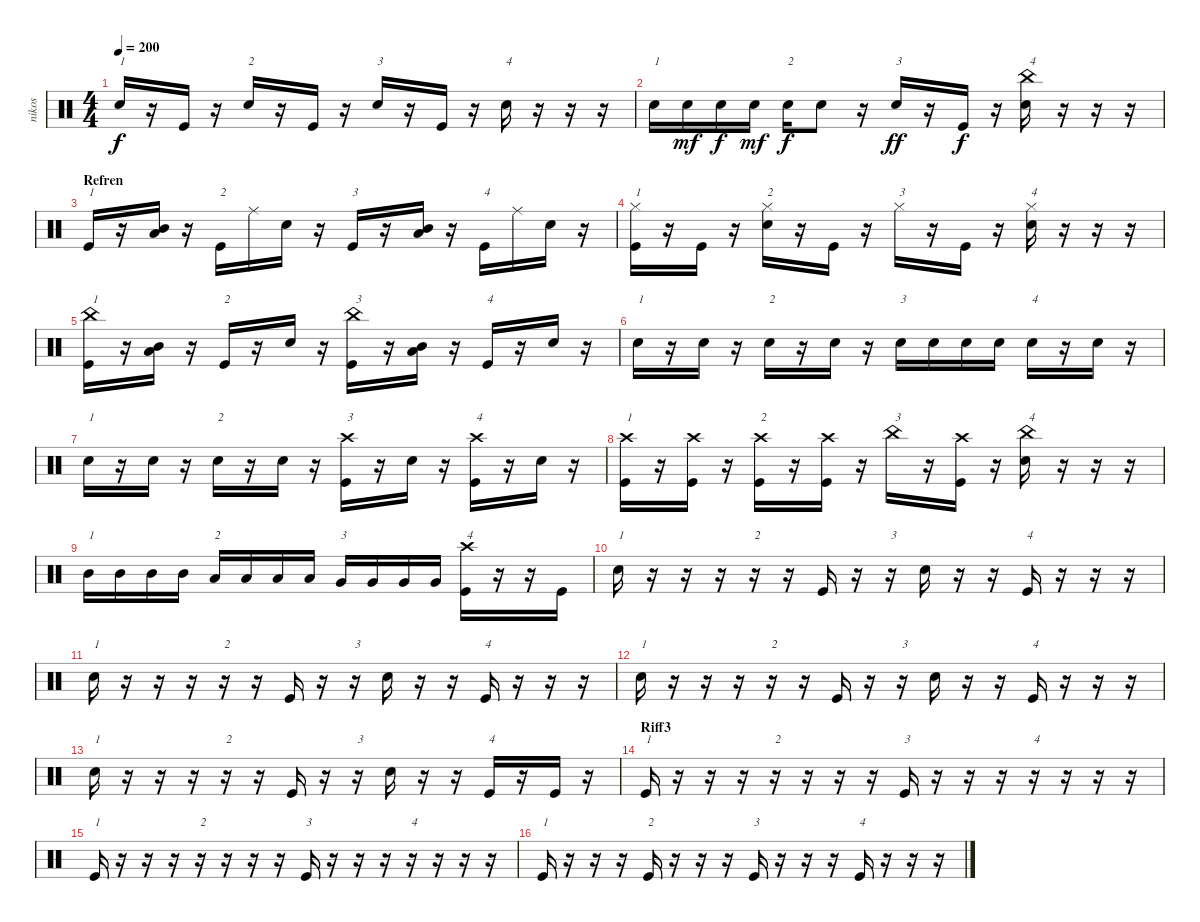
\track ("nikos" "nikos") {instrument percussion}
\staff {score}
\articulation defaults
\ts (4 4)
\tempo 200
\clef neutral
\ks c "Electric Snare (hit)".16{txt "1" dy f}
r.16 "Kick (hit)".16 r.16 "Electric Snare (hit)".16{txt "2"} r.16 "Kick (hit)".16 r.16 "Electric Snare (hit)".16{txt "3"} r.16 "Kick (hit)".16 r.16 "Electric Snare (hit)".16{txt "4"} r.16 r.16 r.16 |
"Electric Snare (hit)".16{txt "1"} "Electric Snare (hit)".16{dy mf} "Electric Snare (hit)".16{dy f} "Electric Snare (hit)".16{dy mf} "Electric Snare (hit)".16{txt "2" dy f} "Electric Snare (hit)".8 r.16 "Electric Snare (hit)".16{txt "3" dy ff} r.16 "Kick (hit)".16{dy f} r.16 ("China (hit)" "Electric Snare (hit)").16{txt "4"} r.16 r.16 r.16 |
\section ("" "Refren")
"Kick (hit)".16{txt "1"} r.16 ("Mid Tom (hit)" "Low Tom (hit)").16 r.16 "Kick (hit)".16{txt "2"} "Ride (middle)".16 "Electric Snare (hit)".16 r.16 "Kick (hit)".16{txt "3"} r.16 ("Mid Tom (hit)" "Low Tom (hit)").16 r.16 "Kick (hit)".16{txt "4"} "Ride (middle)".16 "Electric Snare (hit)".16 r.16 |
("Hi-Hat (closed)" "Kick (hit)").16{txt "1"} r.16 "Kick (hit)".16 r.16 ("Hi-Hat (closed)" "Electric Snare (hit)").16{txt "2"} r.16 "Kick (hit)".16 r.16 "Hi-Hat (closed)".16{txt "3"} r.16 "Kick (hit)".16 r.16 ("Hi-Hat (closed)" "Electric Snare (hit)").16{txt "4"} r.16 r.16 r.16 |
("China (hit)" "Kick (hit)").16{txt "1"} r.16 ("Mid Tom (hit)" "Low Tom (hit)").16 r.16 "Kick (hit)".16{txt "2"} r.16 "Electric Snare (hit)".16 r.16 ("China (hit)" "Kick (hit)").16{txt "3"} r.16 ("Mid Tom (hit)" "Low Tom (hit)").16 r.16 "Kick (hit)".16{txt "4"} r.16 "Electric Snare (hit)".16 r.16 |
"Electric Snare (hit)".16{txt "1"} r.16 "Electric Snare (hit)".16 r.16 "Electric Snare (hit)".16{txt "2"} r.16 "Electric Snare (hit)".16 r.16 "Electric Snare (hit)".16{txt "3"} "Electric Snare (hit)".16 "Electric Snare (hit)".16 "Electric Snare (hit)".16 "Electric Snare (hit)".16{txt "4"} r.16 "Electric Snare (hit)".16 r.16 |
"Electric Snare (hit)".16{txt "1"} r.16 "Electric Snare (hit)".16 r.16 "Electric Snare (hit)".16{txt "2"} r.16 "Electric Snare (hit)".16 r.16 ("Crash high (hit)" "Kick (hit)").16{txt "3"} r.16 "Electric Snare (hit)".16 r.16 ("Crash high (hit)" "Kick (hit)").16{txt "4"} r.16 "Electric Snare (hit)".16 r.16 |
("Crash high (hit)" "Kick (hit)").16{txt "1"} r.16 ("Crash high (hit)" "Kick (hit)").16 r.16 ("Crash high (hit)" "Kick (hit)").16{txt "2"} r.16 ("Crash high (hit)" "Kick (hit)").16 r.16 "China (hit)".16{txt "3"} r.16 ("Crash high (hit)" "Kick (hit)").16 r.16 ("China (hit)" "Electric Snare (hit)").16{txt "4"} r.16 r.16 r.16 |
"Mid Tom (hit)".16{txt "1"} "Mid Tom (hit)".16 "Mid Tom (hit)".16 "Mid Tom (hit)".16 "Low Tom (hit)".16{txt "2"} "Low Tom (hit)".16 "Low Tom (hit)".16 "Low Tom (hit)".16 "Very Low Tom (hit)".16{txt "3"} "Very Low Tom (hit)".16 "Very Low Tom (hit)".16 "Very Low Tom (hit)".16 ("Crash high (hit)" "Kick (hit)").16{txt "4"} r.16 r.16 "Kick (hit)".16 |
"Electric Snare (hit)".16{txt "1"} r.16 r.16 r.16 r.16{txt "2"} r.16 "Kick (hit)".16 r.16 r.16{txt "3"} "Electric Snare (hit)".16 r.16 r.16 "Kick (hit)".16{txt "4"} r.16 r.16 r.16 |
"Electric Snare (hit)".16{txt "1"} r.16 r.16 r.16 r.16{txt "2"} r.16 "Kick (hit)".16 r.16 r.16{txt "3"} "Electric Snare (hit)".16 r.16 r.16 "Kick (hit)".16{txt "4"} r.16 r.16 r.16 |
"Electric Snare (hit)".16{txt "1"} r.16 r.16 r.16 r.16{txt "2"} r.16 "Kick (hit)".16 r.16 r.16{txt "3"} "Electric Snare (hit)".16 r.16 r.16 "Kick (hit)".16{txt "4"} r.16 r.16 r.16 |
"Electric Snare (hit)".16{txt "1"} r.16 r.16 r.16 r.16{txt "2"} r.16 "Kick (hit)".16 r.16 r.16{txt "3"} "Electric Snare (hit)".16 r.16 r.16 "Kick (hit)".16{txt "4"} r.16 "Kick (hit)".16 r.16 |
\section ("" "Riff3")
"Kick (hit)".16{txt "1"} r.16 r.16 r.16 r.16{txt "2"} r.16 r.16 r.16 "Kick (hit)".16{txt "3"} r.16 r.16 r.16 r.16{txt "4"} r.16 r.16 r.16 |
"Kick (hit)".16{txt "1"} r.16 r.16 r.16 r.16{txt "2"} r.16 r.16 r.16 "Kick (hit)".16{txt "3"} r.16 r.16 r.16 r.16{txt "4"} r.16 r.16 r.16 |
"Kick (hit)".16{txt "1"} r.16 r.16 r.16 "Kick (hit)".16{txt "2"} r.16 r.16 r.16 "Kick (hit)".16{txt "3"} r.16 r.16 r.16 "Kick (hit)".16{txt "4"} r.16 r.16 r.16
